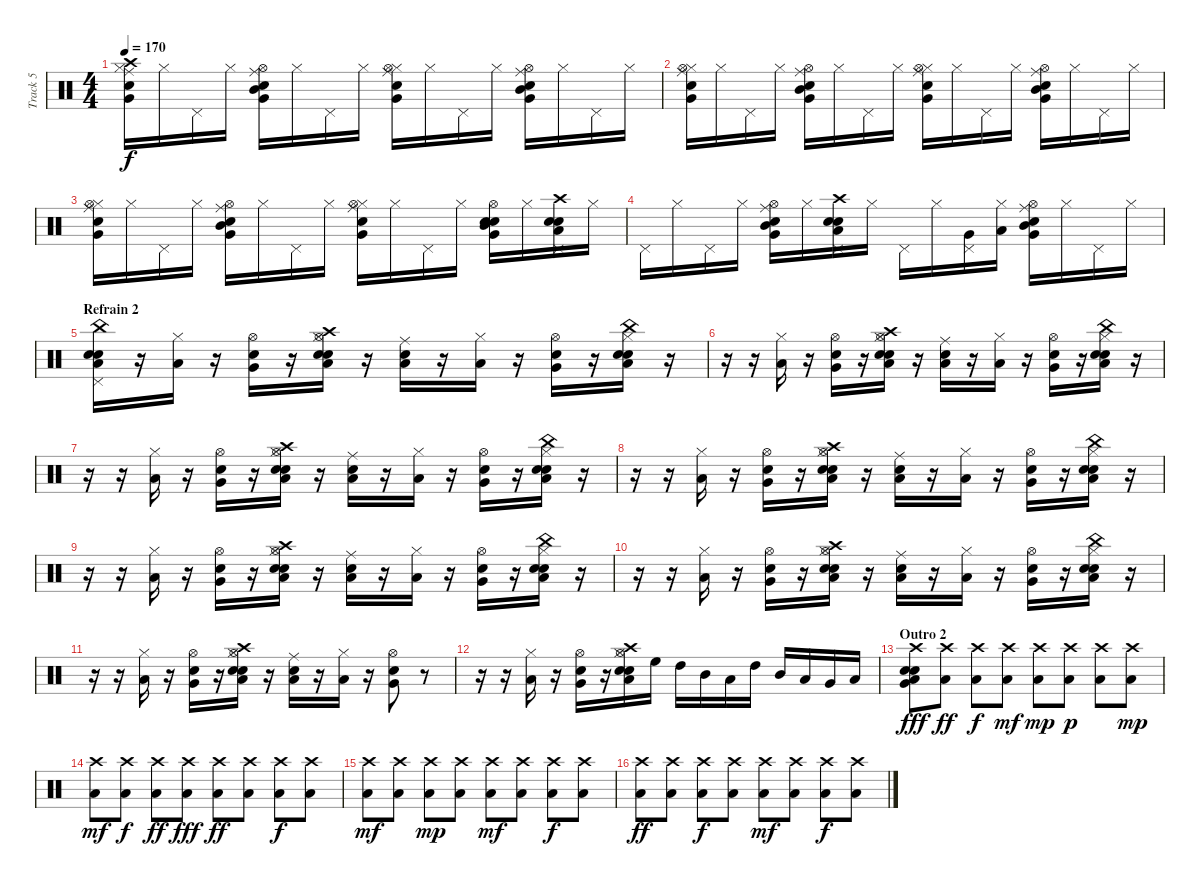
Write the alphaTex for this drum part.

\track ("Track 5" "Track 5") {instrument percussion}
\staff {score}
\articulation defaults
\ts (4 4)
\tempo 170
\clef neutral
\ks c
("Very Low Tom (hit)" "Snare (hit) 2" "Hi-Hat (closed)" "Ride (middle)" "Crash high (hit)").16{dy f} "Hi-Hat (closed)".16 "Pedal Hi-Hat (hit)".16 "Hi-Hat (closed)".16 ("Ride (middle)" "Very Low Tom (hit)" "Mid Tom (hit)" "Electric Snare (hit)" "Hi-Hat (open)").16 "Hi-Hat (closed)".16 "Pedal Hi-Hat (hit)".16 "Hi-Hat (closed)".16 ("Very Low Tom (hit)" "Snare (hit) 2" "Hi-Hat (closed)" "Ride (middle)" "Hi-Hat (open)").16 "Hi-Hat (closed)".16 "Pedal Hi-Hat (hit)".16 "Hi-Hat (closed)".16 ("Ride (middle)" "Very Low Tom (hit)" "Mid Tom (hit)" "Electric Snare (hit)" "Hi-Hat (open)").16 "Hi-Hat (closed)".16 "Pedal Hi-Hat (hit)".16 "Hi-Hat (closed)".16 |
("Very Low Tom (hit)" "Snare (hit) 2" "Hi-Hat (closed)" "Ride (middle)" "Hi-Hat (open)").16 "Hi-Hat (closed)".16 "Pedal Hi-Hat (hit)".16 "Hi-Hat (closed)".16 ("Ride (middle)" "Very Low Tom (hit)" "Mid Tom (hit)" "Electric Snare (hit)" "Hi-Hat (open)").16 "Hi-Hat (closed)".16 "Pedal Hi-Hat (hit)".16 "Hi-Hat (closed)".16 ("Very Low Tom (hit)" "Snare (hit) 2" "Hi-Hat (closed)" "Ride (middle)" "Hi-Hat (open)").16 "Hi-Hat (closed)".16 "Pedal Hi-Hat (hit)".16 "Hi-Hat (closed)".16 ("Ride (middle)" "Very Low Tom (hit)" "Mid Tom (hit)" "Electric Snare (hit)" "Hi-Hat (open)").16 "Hi-Hat (closed)".16 "Pedal Hi-Hat (hit)".16 "Hi-Hat (closed)".16 |
("Very Low Tom (hit)" "Snare (hit) 2" "Hi-Hat (closed)" "Ride (middle)" "Hi-Hat (open)").16 "Hi-Hat (closed)".16 "Pedal Hi-Hat (hit)".16 "Hi-Hat (closed)".16 ("Ride (middle)" "Very Low Tom (hit)" "Mid Tom (hit)" "Electric Snare (hit)" "Hi-Hat (open)").16 "Hi-Hat (closed)".16 "Pedal Hi-Hat (hit)".16 "Hi-Hat (closed)".16 ("Very Low Tom (hit)" "Snare (hit) 2" "Hi-Hat (closed)" "Ride (middle)" "Hi-Hat (open)").16 "Hi-Hat (closed)".16 "Pedal Hi-Hat (hit)".16 "Hi-Hat (closed)".16 ("Hi-Hat (open)" "Very Low Tom (hit)" "Mid Tom (hit)" "Electric Snare (hit)" "Snare (hit) 2").16 "Hi-Hat (closed)".16 ("Pedal Hi-Hat (hit)" "Low Tom (hit)" "Electric Snare (hit)" "Snare (hit) 2" "Crash high (hit)").16 "Hi-Hat (closed)".16 |
"Pedal Hi-Hat (hit)".16 "Hi-Hat (closed)".16 "Pedal Hi-Hat (hit)".16 "Hi-Hat (closed)".16 ("Ride (middle)" "Very Low Tom (hit)" "Mid Tom (hit)" "Electric Snare (hit)" "Hi-Hat (open)").16 "Hi-Hat (closed)".16 ("Pedal Hi-Hat (hit)" "Low Tom (hit)" "Electric Snare (hit)" "Snare (hit) 2" "Crash high (hit)").16 "Hi-Hat (closed)".16 "Pedal Hi-Hat (hit)".16 "Hi-Hat (closed)".16 ("Pedal Hi-Hat (hit)" "Very Low Tom (hit)").16 ("Hi-Hat (closed)" "Low Tom (hit)").16 ("Ride (middle)" "Very Low Tom (hit)" "Mid Tom (hit)" "Electric Snare (hit)" "Hi-Hat (open)").16 "Hi-Hat (closed)".16 "Pedal Hi-Hat (hit)".16 "Hi-Hat (closed)".16 |
\section ("" "Refrain 2")
("Pedal Hi-Hat (hit)" "Low Tom (hit)" "Electric Snare (hit)" "Snare (hit) 2" "China (hit)").16 r.16 ("Low Tom (hit)" "Hi-Hat (closed)").16 r.16 ("Very Low Tom (hit)" "Electric Snare (hit)" "Hi-Hat (open)").16 r.16 ("Low Tom (hit)" "Hi-Hat (closed)" "Snare (hit) 2" "Crash high (hit)" "Electric Snare (hit)" "Hi-Hat (open)").16 r.16 ("Ride (middle)" "Low Tom (hit)" "Snare (hit) 2").16 r.16 ("Low Tom (hit)" "Hi-Hat (closed)").16 r.16 ("Very Low Tom (hit)" "Electric Snare (hit)" "Hi-Hat (open)").16 r.16 ("Low Tom (hit)" "Hi-Hat (closed)" "Snare (hit) 2" "China (hit)" "Electric Snare (hit)").16 r.16 |
r.16 r.16 ("Low Tom (hit)" "Hi-Hat (closed)").16 r.16 ("Very Low Tom (hit)" "Electric Snare (hit)" "Hi-Hat (open)").16 r.16 ("Low Tom (hit)" "Hi-Hat (closed)" "Snare (hit) 2" "Crash high (hit)" "Electric Snare (hit)" "Hi-Hat (open)").16 r.16 ("Ride (middle)" "Low Tom (hit)" "Snare (hit) 2").16 r.16 ("Low Tom (hit)" "Hi-Hat (closed)").16 r.16 ("Very Low Tom (hit)" "Electric Snare (hit)" "Hi-Hat (open)").16 r.16 ("Low Tom (hit)" "Hi-Hat (closed)" "Snare (hit) 2" "China (hit)" "Electric Snare (hit)").16 r.16 |
r.16 r.16 ("Low Tom (hit)" "Hi-Hat (closed)").16 r.16 ("Very Low Tom (hit)" "Electric Snare (hit)" "Hi-Hat (open)").16 r.16 ("Low Tom (hit)" "Hi-Hat (closed)" "Snare (hit) 2" "Crash high (hit)" "Electric Snare (hit)" "Hi-Hat (open)").16 r.16 ("Ride (middle)" "Low Tom (hit)" "Snare (hit) 2").16 r.16 ("Low Tom (hit)" "Hi-Hat (closed)").16 r.16 ("Very Low Tom (hit)" "Electric Snare (hit)" "Hi-Hat (open)").16 r.16 ("Low Tom (hit)" "Hi-Hat (closed)" "Snare (hit) 2" "China (hit)" "Electric Snare (hit)").16 r.16 |
r.16 r.16 ("Low Tom (hit)" "Hi-Hat (closed)").16 r.16 ("Very Low Tom (hit)" "Electric Snare (hit)" "Hi-Hat (open)").16 r.16 ("Low Tom (hit)" "Hi-Hat (closed)" "Snare (hit) 2" "Crash high (hit)" "Electric Snare (hit)" "Hi-Hat (open)").16 r.16 ("Ride (middle)" "Low Tom (hit)" "Snare (hit) 2").16 r.16 ("Low Tom (hit)" "Hi-Hat (closed)").16 r.16 ("Very Low Tom (hit)" "Electric Snare (hit)" "Hi-Hat (open)").16 r.16 ("Low Tom (hit)" "Hi-Hat (closed)" "Snare (hit) 2" "China (hit)" "Electric Snare (hit)").16 r.16 |
r.16 r.16 ("Low Tom (hit)" "Hi-Hat (closed)").16 r.16 ("Very Low Tom (hit)" "Electric Snare (hit)" "Hi-Hat (open)").16 r.16 ("Low Tom (hit)" "Hi-Hat (closed)" "Snare (hit) 2" "Crash high (hit)" "Electric Snare (hit)" "Hi-Hat (open)").16 r.16 ("Ride (middle)" "Low Tom (hit)" "Snare (hit) 2").16 r.16 ("Low Tom (hit)" "Hi-Hat (closed)").16 r.16 ("Very Low Tom (hit)" "Electric Snare (hit)" "Hi-Hat (open)").16 r.16 ("Low Tom (hit)" "Hi-Hat (closed)" "Snare (hit) 2" "China (hit)" "Electric Snare (hit)").16 r.16 |
r.16 r.16 ("Low Tom (hit)" "Hi-Hat (closed)").16 r.16 ("Very Low Tom (hit)" "Electric Snare (hit)" "Hi-Hat (open)").16 r.16 ("Low Tom (hit)" "Hi-Hat (closed)" "Snare (hit) 2" "Crash high (hit)" "Electric Snare (hit)" "Hi-Hat (open)").16 r.16 ("Ride (middle)" "Low Tom (hit)" "Snare (hit) 2").16 r.16 ("Low Tom (hit)" "Hi-Hat (closed)").16 r.16 ("Very Low Tom (hit)" "Electric Snare (hit)" "Hi-Hat (open)").16 r.16 ("Low Tom (hit)" "Hi-Hat (closed)" "Snare (hit) 2" "China (hit)" "Electric Snare (hit)").16 r.16 |
r.16 r.16 ("Low Tom (hit)" "Hi-Hat (closed)").16 r.16 ("Very Low Tom (hit)" "Electric Snare (hit)" "Hi-Hat (open)").16 r.16 ("Low Tom (hit)" "Hi-Hat (closed)" "Snare (hit) 2" "Crash high (hit)" "Electric Snare (hit)" "Hi-Hat (open)").16 r.16 ("Ride (middle)" "Low Tom (hit)" "Snare (hit) 2").16 r.16 ("Low Tom (hit)" "Hi-Hat (closed)").16 r.16 ("Very Low Tom (hit)" "Electric Snare (hit)" "Hi-Hat (open)").8 r.8 |
r.16 r.16 ("Low Tom (hit)" "Hi-Hat (closed)").16 r.16 ("Very Low Tom (hit)" "Electric Snare (hit)" "Hi-Hat (open)").16 r.16 ("Low Tom (hit)" "Hi-Hat (closed)" "Snare (hit) 2" "Crash high (hit)" "Electric Snare (hit)" "Hi-Hat (open)").16 "High Floor Tom (hit)".16 "High Tom (hit)".16 "Mid Tom (hit)".16 "Low Tom (hit)".16 "High Tom (hit)".16 "Mid Tom (hit)".16 "Low Tom (hit)".16 "Very Low Tom (hit)".16 "Low Floor Tom (hit)".16 |
\section ("" "Outro 2")
("Very Low Tom (hit)" "Low Tom (hit)" "Electric Snare (hit)" "Snare (hit) 2" "Crash high (hit)").8{dy fff} ("Low Floor Tom (hit)" "Crash high (hit)").8{dy ff} ("Low Floor Tom (hit)" "Crash high (hit)").8{dy f} ("Low Floor Tom (hit)" "Crash high (hit)").8{dy mf} ("Low Floor Tom (hit)" "Crash high (hit)").8{dy mp} ("Low Floor Tom (hit)" "Crash high (hit)").8{dy p} ("Low Floor Tom (hit)" "Crash high (hit)").8 ("Low Floor Tom (hit)" "Crash high (hit)").8{dy mp} |
("Low Floor Tom (hit)" "Crash high (hit)").8{dy mf} ("Low Floor Tom (hit)" "Crash high (hit)").8{dy f} ("Low Floor Tom (hit)" "Crash high (hit)").8{dy ff} ("Low Floor Tom (hit)" "Crash high (hit)").8{dy fff} ("Low Floor Tom (hit)" "Crash high (hit)").8{dy ff} ("Low Floor Tom (hit)" "Crash high (hit)").8 ("Low Floor Tom (hit)" "Crash high (hit)").8{dy f} ("Low Floor Tom (hit)" "Crash high (hit)").8 |
("Low Floor Tom (hit)" "Crash high (hit)").8{dy mf} ("Low Floor Tom (hit)" "Crash high (hit)").8 ("Low Floor Tom (hit)" "Crash high (hit)").8{dy mp} ("Low Floor Tom (hit)" "Crash high (hit)").8 ("Low Floor Tom (hit)" "Crash high (hit)").8{dy mf} ("Low Floor Tom (hit)" "Crash high (hit)").8 ("Low Floor Tom (hit)" "Crash high (hit)").8{dy f} ("Low Floor Tom (hit)" "Crash high (hit)").8 |
("Low Floor Tom (hit)" "Crash high (hit)").8{dy ff} ("Low Floor Tom (hit)" "Crash high (hit)").8 ("Low Floor Tom (hit)" "Crash high (hit)").8{dy f} ("Low Floor Tom (hit)" "Crash high (hit)").8 ("Low Floor Tom (hit)" "Crash high (hit)").8{dy mf} ("Low Floor Tom (hit)" "Crash high (hit)").8 ("Low Floor Tom (hit)" "Crash high (hit)").8{dy f} ("Low Floor Tom (hit)" "Crash high (hit)").8
